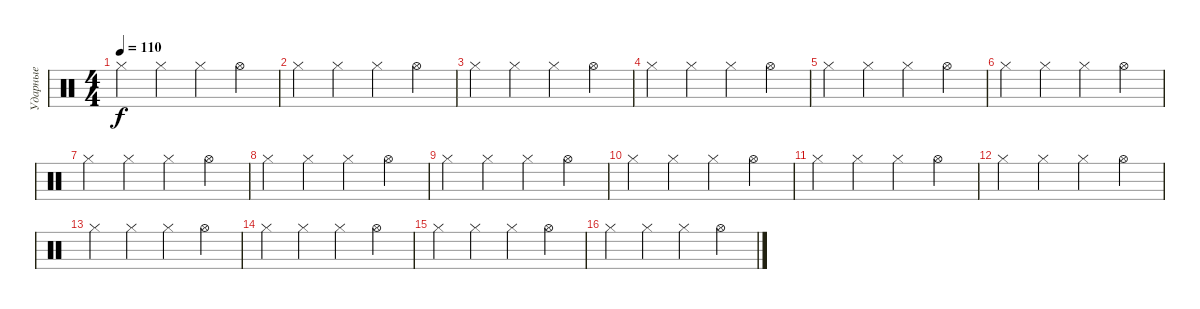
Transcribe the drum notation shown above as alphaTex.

\track ("Ударные" "Ударные") {instrument percussion}
\staff {score}
\articulation defaults
\ts (4 4)
\tempo 110
\clef neutral
\ks c "Hi-Hat (closed)".4{dy f} "Hi-Hat (closed)".4 "Hi-Hat (closed)".4 "Hi-Hat (open)".4
|
"Hi-Hat (closed)".4 "Hi-Hat (closed)".4 "Hi-Hat (closed)".4 "Hi-Hat (open)".4 |
"Hi-Hat (closed)".4 "Hi-Hat (closed)".4 "Hi-Hat (closed)".4 "Hi-Hat (open)".4 |
"Hi-Hat (closed)".4 "Hi-Hat (closed)".4 "Hi-Hat (closed)".4 "Hi-Hat (open)".4 |
"Hi-Hat (closed)".4 "Hi-Hat (closed)".4 "Hi-Hat (closed)".4 "Hi-Hat (open)".4 |
"Hi-Hat (closed)".4 "Hi-Hat (closed)".4 "Hi-Hat (closed)".4 "Hi-Hat (open)".4 |
"Hi-Hat (closed)".4 "Hi-Hat (closed)".4 "Hi-Hat (closed)".4 "Hi-Hat (open)".4 |
"Hi-Hat (closed)".4 "Hi-Hat (closed)".4 "Hi-Hat (closed)".4 "Hi-Hat (open)".4 |
"Hi-Hat (closed)".4 "Hi-Hat (closed)".4 "Hi-Hat (closed)".4 "Hi-Hat (open)".4 |
"Hi-Hat (closed)".4 "Hi-Hat (closed)".4 "Hi-Hat (closed)".4 "Hi-Hat (open)".4 |
"Hi-Hat (closed)".4 "Hi-Hat (closed)".4 "Hi-Hat (closed)".4 "Hi-Hat (open)".4 |
"Hi-Hat (closed)".4 "Hi-Hat (closed)".4 "Hi-Hat (closed)".4 "Hi-Hat (open)".4 |
"Hi-Hat (closed)".4 "Hi-Hat (closed)".4 "Hi-Hat (closed)".4 "Hi-Hat (open)".4 |
"Hi-Hat (closed)".4 "Hi-Hat (closed)".4 "Hi-Hat (closed)".4 "Hi-Hat (open)".4 |
"Hi-Hat (closed)".4 "Hi-Hat (closed)".4 "Hi-Hat (closed)".4 "Hi-Hat (open)".4 |
"Hi-Hat (closed)".4 "Hi-Hat (closed)".4 "Hi-Hat (closed)".4 "Hi-Hat (open)".4
